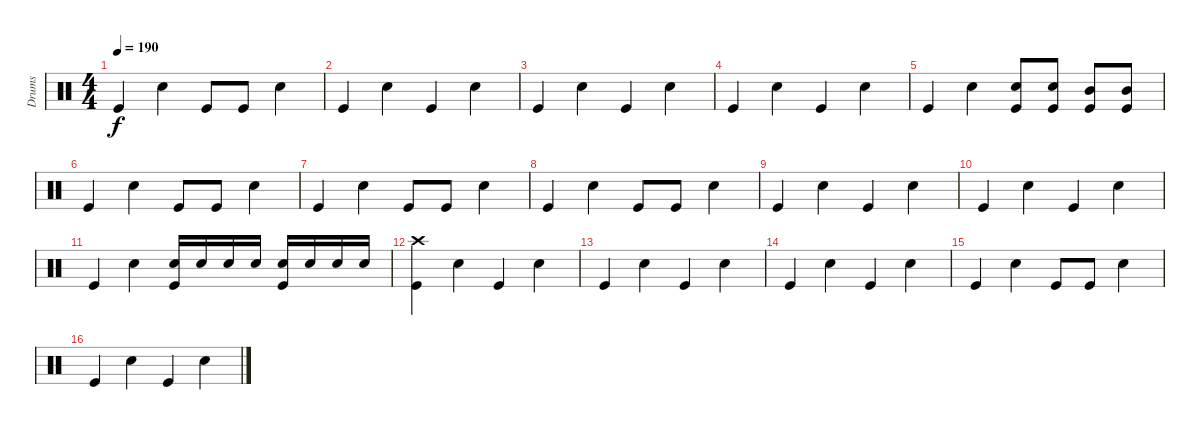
\track ("Drums" "Drums") {instrument percussion}
\staff {score}
\articulation defaults
\ts (4 4)
\tempo 190
\clef neutral
\ks c "Kick (hit)".4{dy f} "Snare (hit) 2".4 "Kick (hit)".8 "Kick (hit)".8 "Snare (hit) 2".4
|
"Kick (hit)".4 "Snare (hit) 2".4 "Kick (hit)".4 "Snare (hit) 2".4 |
"Kick (hit)".4 "Snare (hit) 2".4 "Kick (hit)".4 "Snare (hit) 2".4 |
"Kick (hit)".4 "Snare (hit) 2".4 "Kick (hit)".4 "Snare (hit) 2".4 |
"Kick (hit)".4 "Snare (hit) 2".4 ("Snare (hit) 2" "Kick (hit)").8 ("Snare (hit) 2" "Kick (hit)").8 ("Mid Tom (hit)" "Kick (hit)").8 ("Mid Tom (hit)" "Kick (hit)").8 |
"Kick (hit)".4 "Snare (hit) 2".4 "Kick (hit)".8 "Kick (hit)".8 "Snare (hit) 2".4 |
"Kick (hit)".4 "Snare (hit) 2".4 "Kick (hit)".8 "Kick (hit)".8 "Snare (hit) 2".4 |
"Kick (hit)".4 "Snare (hit) 2".4 "Kick (hit)".8 "Kick (hit)".8 "Snare (hit) 2".4 |
"Kick (hit)".4 "Snare (hit) 2".4 "Kick (hit)".4 "Snare (hit) 2".4 |
"Kick (hit)".4 "Snare (hit) 2".4 "Kick (hit)".4 "Snare (hit) 2".4 |
"Kick (hit)".4 "Snare (hit) 2".4 ("Snare (hit) 2" "Kick (hit)").16 "Snare (hit) 2".16 "Snare (hit) 2".16 "Snare (hit) 2".16 ("Snare (hit) 2" "Kick (hit)").16 "Snare (hit) 2".16 "Snare (hit) 2".16 "Snare (hit) 2".16 |
("Crash high (hit)" "Kick (hit)").4 "Snare (hit) 2".4 "Kick (hit)".4 "Snare (hit) 2".4 |
"Kick (hit)".4 "Snare (hit) 2".4 "Kick (hit)".4 "Snare (hit) 2".4 |
"Kick (hit)".4 "Snare (hit) 2".4 "Kick (hit)".4 "Snare (hit) 2".4 |
"Kick (hit)".4 "Snare (hit) 2".4 "Kick (hit)".8 "Kick (hit)".8 "Snare (hit) 2".4 |
"Kick (hit)".4 "Snare (hit) 2".4 "Kick (hit)".4 "Snare (hit) 2".4
